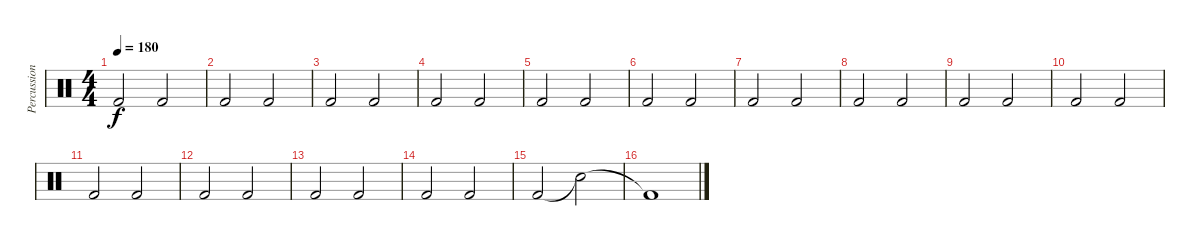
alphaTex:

\track ("Percussion" "Percussion") {instrument percussion}
\staff {score}
\articulation defaults
\ts (4 4)
\tempo 180
\clef neutral
\ks c "Kick (hit) 2".2{dy f} "Kick (hit) 2".2
|
"Kick (hit) 2".2 "Kick (hit) 2".2 |
"Kick (hit) 2".2 "Kick (hit) 2".2 |
"Kick (hit) 2".2 "Kick (hit) 2".2 |
"Kick (hit) 2".2 "Kick (hit) 2".2 |
"Kick (hit) 2".2 "Kick (hit) 2".2 |
"Kick (hit) 2".2 "Kick (hit) 2".2 |
"Kick (hit) 2".2 "Kick (hit) 2".2 |
"Kick (hit) 2".2 "Kick (hit) 2".2 |
"Kick (hit) 2".2 "Kick (hit) 2".2 |
"Kick (hit) 2".2 "Kick (hit) 2".2 |
"Kick (hit) 2".2 "Kick (hit) 2".2 |
"Kick (hit) 2".2 "Kick (hit) 2".2 |
"Kick (hit) 2".2 "Kick (hit) 2".2 |
"Kick (hit) 2".2 "Snare (hit)"{t}.2 |
"Kick (hit) 2"{t}.1
